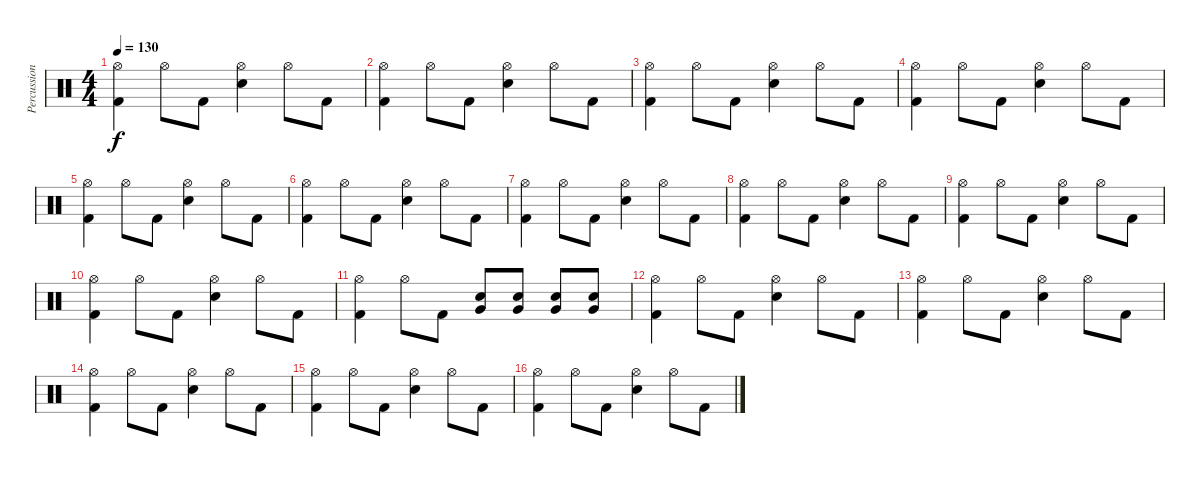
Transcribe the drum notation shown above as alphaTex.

\track ("Percussion" "Percussion") {instrument percussion}
\staff {score}
\articulation defaults
\ts (4 4)
\tempo 130
\clef neutral
\ks c
("Hi-Hat (open)" "Kick (hit) 2").4{dy f} "Hi-Hat (open)".8 "Kick (hit) 2".8 ("Hi-Hat (open)" "Electric Snare (hit)").4 "Hi-Hat (open)".8 "Kick (hit) 2".8 |
("Hi-Hat (open)" "Kick (hit) 2").4 "Hi-Hat (open)".8 "Kick (hit) 2".8 ("Hi-Hat (open)" "Electric Snare (hit)").4 "Hi-Hat (open)".8 "Kick (hit) 2".8 |
("Hi-Hat (open)" "Kick (hit) 2").4 "Hi-Hat (open)".8 "Kick (hit) 2".8 ("Hi-Hat (open)" "Electric Snare (hit)").4 "Hi-Hat (open)".8 "Kick (hit) 2".8 |
("Hi-Hat (open)" "Kick (hit) 2").4 "Hi-Hat (open)".8 "Kick (hit) 2".8 ("Hi-Hat (open)" "Electric Snare (hit)").4 "Hi-Hat (open)".8 "Kick (hit) 2".8 |
("Hi-Hat (open)" "Kick (hit) 2").4 "Hi-Hat (open)".8 "Kick (hit) 2".8 ("Hi-Hat (open)" "Electric Snare (hit)").4 "Hi-Hat (open)".8 "Kick (hit) 2".8 |
("Hi-Hat (open)" "Kick (hit) 2").4 "Hi-Hat (open)".8 "Kick (hit) 2".8 ("Hi-Hat (open)" "Electric Snare (hit)").4 "Hi-Hat (open)".8 "Kick (hit) 2".8 |
("Hi-Hat (open)" "Kick (hit) 2").4 "Hi-Hat (open)".8 "Kick (hit) 2".8 ("Hi-Hat (open)" "Electric Snare (hit)").4 "Hi-Hat (open)".8 "Kick (hit) 2".8 |
("Hi-Hat (open)" "Kick (hit) 2").4 "Hi-Hat (open)".8 "Kick (hit) 2".8 ("Hi-Hat (open)" "Electric Snare (hit)").4 "Hi-Hat (open)".8 "Kick (hit) 2".8 |
("Hi-Hat (open)" "Kick (hit) 2").4 "Hi-Hat (open)".8 "Kick (hit) 2".8 ("Hi-Hat (open)" "Electric Snare (hit)").4 "Hi-Hat (open)".8 "Kick (hit) 2".8 |
("Hi-Hat (open)" "Kick (hit) 2").4 "Hi-Hat (open)".8 "Kick (hit) 2".8 ("Hi-Hat (open)" "Electric Snare (hit)").4 "Hi-Hat (open)".8 "Kick (hit) 2".8 |
("Hi-Hat (open)" "Kick (hit) 2").4 "Hi-Hat (open)".8 "Kick (hit) 2".8 ("Very Low Tom (hit)" "Electric Snare (hit)").8 ("Very Low Tom (hit)" "Electric Snare (hit)").8 ("Very Low Tom (hit)" "Electric Snare (hit)").8 ("Very Low Tom (hit)" "Electric Snare (hit)").8 |
("Hi-Hat (open)" "Kick (hit) 2").4 "Hi-Hat (open)".8 "Kick (hit) 2".8 ("Hi-Hat (open)" "Electric Snare (hit)").4 "Hi-Hat (open)".8 "Kick (hit) 2".8 |
("Hi-Hat (open)" "Kick (hit) 2").4 "Hi-Hat (open)".8 "Kick (hit) 2".8 ("Hi-Hat (open)" "Electric Snare (hit)").4 "Hi-Hat (open)".8 "Kick (hit) 2".8 |
("Hi-Hat (open)" "Kick (hit) 2").4 "Hi-Hat (open)".8 "Kick (hit) 2".8 ("Hi-Hat (open)" "Electric Snare (hit)").4 "Hi-Hat (open)".8 "Kick (hit) 2".8 |
("Hi-Hat (open)" "Kick (hit) 2").4 "Hi-Hat (open)".8 "Kick (hit) 2".8 ("Hi-Hat (open)" "Electric Snare (hit)").4 "Hi-Hat (open)".8 "Kick (hit) 2".8 |
("Hi-Hat (open)" "Kick (hit) 2").4 "Hi-Hat (open)".8 "Kick (hit) 2".8 ("Hi-Hat (open)" "Electric Snare (hit)").4 "Hi-Hat (open)".8 "Kick (hit) 2".8
